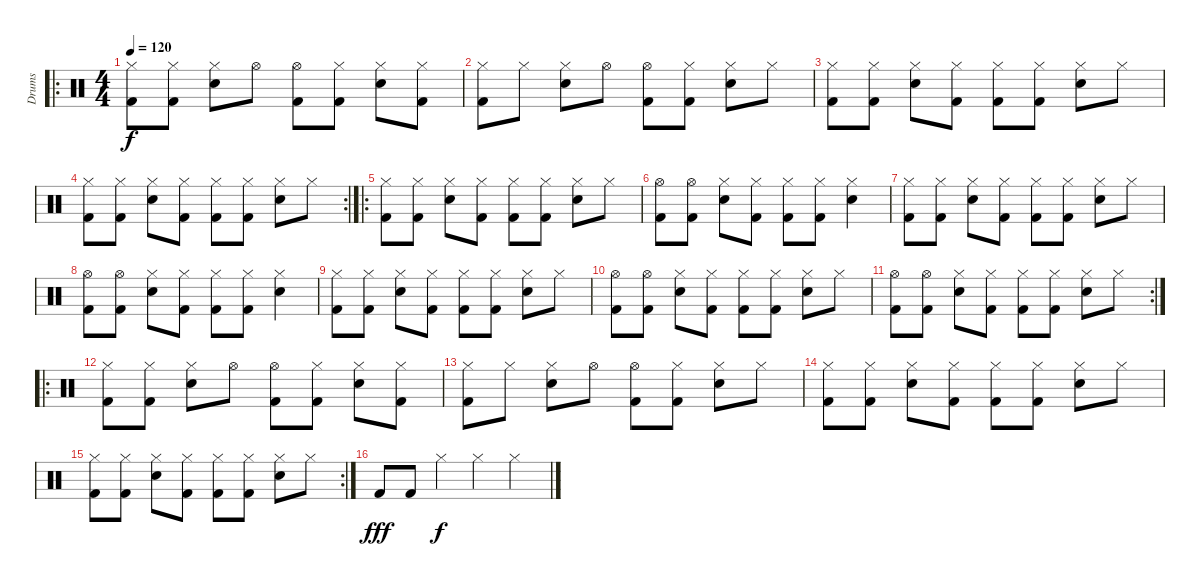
\track ("Drums" "Drums") {instrument percussion}
\staff {score}
\articulation defaults
\ro
\ts (4 4)
\tempo 120
\clef neutral
\ks c
("Hi-Hat (closed)" "Kick (hit) 2").8{dy f} ("Hi-Hat (closed)" "Kick (hit) 2").8 ("Hi-Hat (closed)" "Electric Snare (hit)").8 "Hi-Hat (open)".8 ("Hi-Hat (open)" "Kick (hit) 2").8 ("Hi-Hat (closed)" "Kick (hit) 2").8 ("Hi-Hat (closed)" "Electric Snare (hit)").8 ("Hi-Hat (closed)" "Kick (hit) 2").8 |
("Hi-Hat (closed)" "Kick (hit) 2").8 "Hi-Hat (closed)".8 ("Hi-Hat (closed)" "Electric Snare (hit)").8 "Hi-Hat (open)".8 ("Hi-Hat (open)" "Kick (hit) 2").8 ("Hi-Hat (closed)" "Kick (hit) 2").8 ("Hi-Hat (closed)" "Electric Snare (hit)").8 "Hi-Hat (closed)".8 |
("Hi-Hat (closed)" "Kick (hit) 2").8 ("Hi-Hat (closed)" "Kick (hit) 2").8 ("Hi-Hat (closed)" "Electric Snare (hit)").8 ("Hi-Hat (closed)" "Kick (hit) 2").8 ("Hi-Hat (closed)" "Kick (hit) 2").8 ("Hi-Hat (closed)" "Kick (hit) 2").8 ("Hi-Hat (closed)" "Electric Snare (hit)").8 "Hi-Hat (closed)".8 |
\rc 2
("Hi-Hat (closed)" "Kick (hit) 2").8 ("Hi-Hat (closed)" "Kick (hit) 2").8 ("Hi-Hat (closed)" "Electric Snare (hit)").8 ("Hi-Hat (closed)" "Kick (hit) 2").8 ("Hi-Hat (closed)" "Kick (hit) 2").8 ("Hi-Hat (closed)" "Kick (hit) 2").8 ("Hi-Hat (closed)" "Electric Snare (hit)").8 "Hi-Hat (closed)".8 |
\ro
("Hi-Hat (closed)" "Kick (hit) 2").8 ("Hi-Hat (closed)" "Kick (hit) 2").8 ("Hi-Hat (closed)" "Electric Snare (hit)").8 ("Hi-Hat (closed)" "Kick (hit) 2").8 ("Hi-Hat (closed)" "Kick (hit) 2").8 ("Hi-Hat (closed)" "Kick (hit) 2").8 ("Hi-Hat (closed)" "Electric Snare (hit)").8 "Hi-Hat (closed)".8 |
("Hi-Hat (open)" "Kick (hit) 2").8 ("Hi-Hat (open)" "Kick (hit) 2").8 ("Hi-Hat (closed)" "Electric Snare (hit)").8 ("Hi-Hat (closed)" "Kick (hit) 2").8 ("Hi-Hat (closed)" "Kick (hit) 2").8 ("Hi-Hat (closed)" "Kick (hit) 2").8 ("Hi-Hat (closed)" "Electric Snare (hit)").4 |
("Hi-Hat (closed)" "Kick (hit) 2").8 ("Hi-Hat (closed)" "Kick (hit) 2").8 ("Hi-Hat (closed)" "Electric Snare (hit)").8 ("Hi-Hat (closed)" "Kick (hit) 2").8 ("Hi-Hat (closed)" "Kick (hit) 2").8 ("Hi-Hat (closed)" "Kick (hit) 2").8 ("Hi-Hat (closed)" "Electric Snare (hit)").8 "Hi-Hat (closed)".8 |
("Hi-Hat (open)" "Kick (hit) 2").8 ("Hi-Hat (open)" "Kick (hit) 2").8 ("Hi-Hat (closed)" "Electric Snare (hit)").8 ("Hi-Hat (closed)" "Kick (hit) 2").8 ("Hi-Hat (closed)" "Kick (hit) 2").8 ("Hi-Hat (closed)" "Kick (hit) 2").8 ("Hi-Hat (closed)" "Electric Snare (hit)").4 |
("Hi-Hat (closed)" "Kick (hit) 2").8 ("Hi-Hat (closed)" "Kick (hit) 2").8 ("Hi-Hat (closed)" "Electric Snare (hit)").8 ("Hi-Hat (closed)" "Kick (hit) 2").8 ("Hi-Hat (closed)" "Kick (hit) 2").8 ("Hi-Hat (closed)" "Kick (hit) 2").8 ("Hi-Hat (closed)" "Electric Snare (hit)").8 "Hi-Hat (closed)".8 |
("Hi-Hat (open)" "Kick (hit) 2").8 ("Hi-Hat (open)" "Kick (hit) 2").8 ("Hi-Hat (closed)" "Electric Snare (hit)").8 ("Hi-Hat (closed)" "Kick (hit) 2").8 ("Hi-Hat (closed)" "Kick (hit) 2").8 ("Hi-Hat (closed)" "Kick (hit) 2").8 ("Hi-Hat (closed)" "Electric Snare (hit)").8 "Hi-Hat (closed)".8 |
\rc 2
("Hi-Hat (open)" "Kick (hit) 2").8 ("Hi-Hat (open)" "Kick (hit) 2").8 ("Hi-Hat (closed)" "Electric Snare (hit)").8 ("Hi-Hat (closed)" "Kick (hit) 2").8 ("Hi-Hat (closed)" "Kick (hit) 2").8 ("Hi-Hat (closed)" "Kick (hit) 2").8 ("Hi-Hat (closed)" "Electric Snare (hit)").8 "Hi-Hat (closed)".8 |
\ro
("Hi-Hat (closed)" "Kick (hit) 2").8 ("Hi-Hat (closed)" "Kick (hit) 2").8 ("Hi-Hat (closed)" "Electric Snare (hit)").8 "Hi-Hat (open)".8 ("Hi-Hat (open)" "Kick (hit) 2").8 ("Hi-Hat (closed)" "Kick (hit) 2").8 ("Hi-Hat (closed)" "Electric Snare (hit)").8 ("Hi-Hat (closed)" "Kick (hit) 2").8 |
("Hi-Hat (closed)" "Kick (hit) 2").8 "Hi-Hat (closed)".8 ("Hi-Hat (closed)" "Electric Snare (hit)").8 "Hi-Hat (open)".8 ("Hi-Hat (open)" "Kick (hit) 2").8 ("Hi-Hat (closed)" "Kick (hit) 2").8 ("Hi-Hat (closed)" "Electric Snare (hit)").8 "Hi-Hat (closed)".8 |
("Hi-Hat (closed)" "Kick (hit) 2").8 ("Hi-Hat (closed)" "Kick (hit) 2").8 ("Hi-Hat (closed)" "Electric Snare (hit)").8 ("Hi-Hat (closed)" "Kick (hit) 2").8 ("Hi-Hat (closed)" "Kick (hit) 2").8 ("Hi-Hat (closed)" "Kick (hit) 2").8 ("Hi-Hat (closed)" "Electric Snare (hit)").8 "Hi-Hat (closed)".8 |
\rc 2
("Hi-Hat (closed)" "Kick (hit) 2").8 ("Hi-Hat (closed)" "Kick (hit) 2").8 ("Hi-Hat (closed)" "Electric Snare (hit)").8 ("Hi-Hat (closed)" "Kick (hit) 2").8 ("Hi-Hat (closed)" "Kick (hit) 2").8 ("Hi-Hat (closed)" "Kick (hit) 2").8 ("Hi-Hat (closed)" "Electric Snare (hit)").8 "Hi-Hat (closed)".8 |
"Kick (hit) 2".8{dy fff} "Kick (hit) 2".8 "Hi-Hat (closed)".4{dy f} "Hi-Hat (closed)".4 "Hi-Hat (closed)".4
